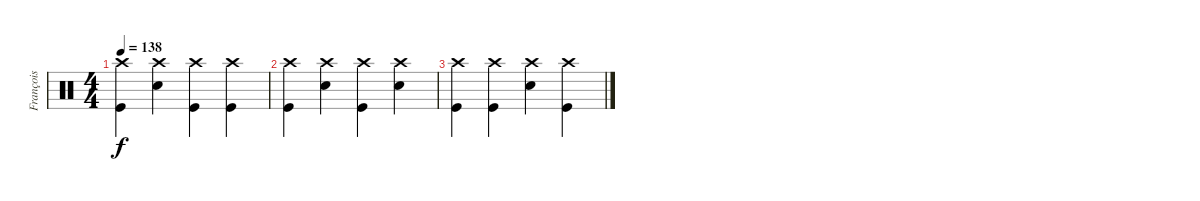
\track ("François" "François") {instrument percussion}
\staff {score}
\articulation defaults
\ts (4 4)
\tempo 138
\clef neutral
\ks c
("Crash high (hit)" "Kick (hit)").4{dy f} ("Crash high (hit)" "Electric Snare (hit)").4 ("Crash high (hit)" "Kick (hit)").4 ("Crash high (hit)" "Kick (hit)").4 |
("Crash high (hit)" "Kick (hit)").4 ("Crash high (hit)" "Electric Snare (hit)").4 ("Crash high (hit)" "Kick (hit)").4 ("Crash high (hit)" "Electric Snare (hit)").4 |
("Crash high (hit)" "Kick (hit)").4 ("Crash high (hit)" "Kick (hit)").4 ("Crash high (hit)" "Electric Snare (hit)").4 ("Crash high (hit)" "Kick (hit)").4
